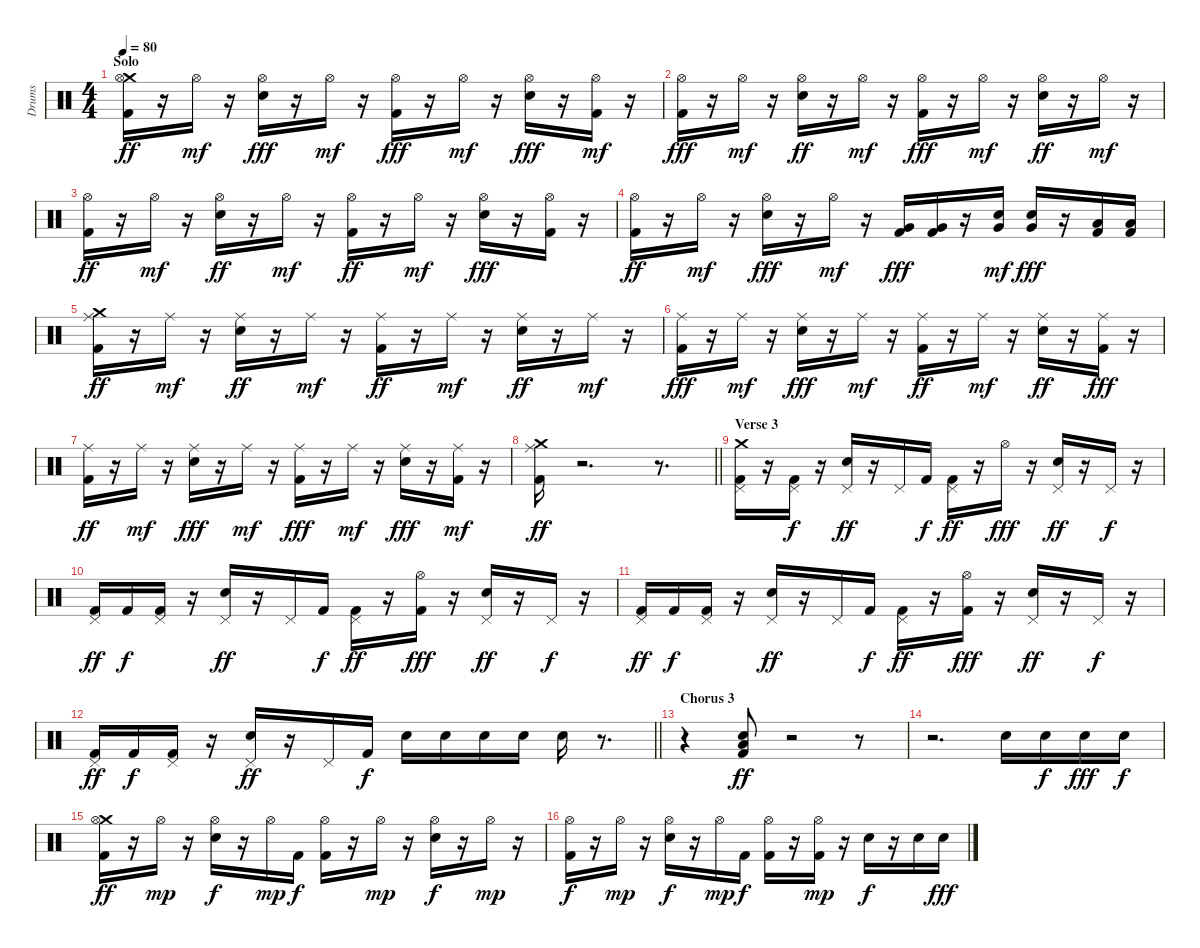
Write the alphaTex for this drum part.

\track ("Drums" "Drums") {instrument percussion}
\staff {score}
\articulation defaults
\ts (4 4)
\section ("" "Solo")
\tempo 80
\clef neutral
\ks c
("Crash medium (hit)" "Kick (hit) 2" "Hi-Hat (open)").16{dy ff} r.16 "Hi-Hat (open)".16{dy mf} r.16 ("Hi-Hat (open)" "Snare (hit) 2").16{dy fff} r.16 "Hi-Hat (open)".16{dy mf} r.16 ("Hi-Hat (open)" "Kick (hit) 2").16{dy fff} r.16 "Hi-Hat (open)".16{dy mf} r.16 ("Hi-Hat (open)" "Snare (hit) 2").16{dy fff} r.16 ("Kick (hit) 2" "Hi-Hat (open)").16{dy mf} r.16 |
("Hi-Hat (open)" "Kick (hit) 2").16{dy fff} r.16 "Hi-Hat (open)".16{dy mf} r.16 ("Snare (hit) 2" "Hi-Hat (open)").16{dy ff} r.16 "Hi-Hat (open)".16{dy mf} r.16 ("Hi-Hat (open)" "Kick (hit) 2").16{dy fff} r.16 "Hi-Hat (open)".16{dy mf} r.16 ("Snare (hit) 2" "Hi-Hat (open)").16{dy ff} r.16 "Hi-Hat (open)".16{dy mf} r.16 |
("Kick (hit) 2" "Hi-Hat (open)").16{dy ff} r.16 "Hi-Hat (open)".16{dy mf} r.16 ("Snare (hit) 2" "Hi-Hat (open)").16{dy ff} r.16 "Hi-Hat (open)".16{dy mf} r.16 ("Kick (hit) 2" "Hi-Hat (open)").16{dy ff} r.16 "Hi-Hat (open)".16{dy mf} r.16 ("Hi-Hat (open)" "Snare (hit) 2").16{dy fff} r.16 ("Hi-Hat (open)" "Kick (hit) 2").16 r.16 |
("Kick (hit) 2" "Hi-Hat (open)").16{dy ff} r.16 "Hi-Hat (open)".16{dy mf} r.16 ("Hi-Hat (open)" "Snare (hit) 2").16{dy fff} r.16 "Hi-Hat (open)".16{dy mf} r.16 ("Very Low Tom (hit)" "Kick (hit) 2").16{dy fff} ("Very Low Tom (hit)" "Kick (hit) 2").16 r.16 ("Snare (hit) 2" "Very Low Tom (hit)").16{dy mf} ("Very Low Tom (hit)" "Snare (hit) 2").16{dy fff} r.16 ("Low Floor Tom (hit)" "Kick (hit) 2").16 ("Low Floor Tom (hit)" "Kick (hit) 2").16 |
("Crash medium (hit)" "Kick (hit) 2" "Ride (middle)").16{dy ff} r.16 "Ride (middle)".16{dy mf} r.16 ("Snare (hit) 2" "Ride (middle)").16{dy ff} r.16 "Ride (middle)".16{dy mf} r.16 ("Kick (hit) 2" "Ride (middle)").16{dy ff} r.16 "Ride (middle)".16{dy mf} r.16 ("Snare (hit) 2" "Ride (middle)").16{dy ff} r.16 "Ride (middle)".16{dy mf} r.16 |
("Ride (middle)" "Kick (hit) 2").16{dy fff} r.16 "Ride (middle)".16{dy mf} r.16 ("Ride (middle)" "Snare (hit) 2").16{dy fff} r.16 "Ride (middle)".16{dy mf} r.16 ("Kick (hit) 2" "Ride (middle)").16{dy ff} r.16 "Ride (middle)".16{dy mf} r.16 ("Snare (hit) 2" "Ride (middle)").16{dy ff} r.16 ("Ride (middle)" "Kick (hit) 2").16{dy fff} r.16 |
("Kick (hit) 2" "Ride (middle)").16{dy ff} r.16 "Ride (middle)".16{dy mf} r.16 ("Ride (middle)" "Snare (hit) 2").16{dy fff} r.16 "Ride (middle)".16{dy mf} r.16 ("Ride (middle)" "Kick (hit) 2").16{dy fff} r.16 "Ride (middle)".16{dy mf} r.16 ("Ride (middle)" "Snare (hit) 2").16{dy fff} r.16 ("Kick (hit) 2" "Ride (middle)").16{dy mf} r.16 |
\barLineRight lightlight
("Ride (middle)" "Kick (hit) 2" "Crash medium (hit)").16{dy ff} r.2{d} r.8{d} |
\section ("" "Verse 3")
("Pedal Hi-Hat (hit)" "Crash medium (hit)" "Kick (hit) 2").16 r.16 ("Kick (hit) 2" "Pedal Hi-Hat (hit)").16{dy f} r.16 ("Snare (hit) 2" "Pedal Hi-Hat (hit)").16{dy ff} r.16 "Pedal Hi-Hat (hit)".16 "Kick (hit) 2".16{dy f} ("Kick (hit) 2" "Pedal Hi-Hat (hit)").16{dy ff} r.16 "Hi-Hat (open)".16{dy fff} r.16 ("Pedal Hi-Hat (hit)" "Snare (hit) 2").16{dy ff} r.16 "Pedal Hi-Hat (hit)".16{dy f} r.16 |
("Pedal Hi-Hat (hit)" "Kick (hit) 2").16{dy ff} "Kick (hit) 2".16{dy f} ("Kick (hit) 2" "Pedal Hi-Hat (hit)").16 r.16 ("Pedal Hi-Hat (hit)" "Snare (hit) 2").16{dy ff} r.16 "Pedal Hi-Hat (hit)".16 "Kick (hit) 2".16{dy f} ("Pedal Hi-Hat (hit)" "Kick (hit) 2").16{dy ff} r.16 ("Hi-Hat (open)" "Kick (hit) 2").16{dy fff} r.16 ("Pedal Hi-Hat (hit)" "Snare (hit) 2").16{dy ff} r.16 "Pedal Hi-Hat (hit)".16{dy f} r.16 |
("Kick (hit) 2" "Pedal Hi-Hat (hit)").16{dy ff} "Kick (hit) 2".16{dy f} ("Kick (hit) 2" "Pedal Hi-Hat (hit)").16 r.16 ("Pedal Hi-Hat (hit)" "Snare (hit) 2").16{dy ff} r.16 "Pedal Hi-Hat (hit)".16 "Kick (hit) 2".16{dy f} ("Kick (hit) 2" "Pedal Hi-Hat (hit)").16{dy ff} r.16 ("Kick (hit) 2" "Hi-Hat (open)").16{dy fff} r.16 ("Snare (hit) 2" "Pedal Hi-Hat (hit)").16{dy ff} r.16 "Pedal Hi-Hat (hit)".16{dy f} r.16 |
\barLineRight lightlight
("Pedal Hi-Hat (hit)" "Kick (hit) 2").16{dy ff} "Kick (hit) 2".16{dy f} ("Pedal Hi-Hat (hit)" "Kick (hit) 2").16 r.16 ("Pedal Hi-Hat (hit)" "Snare (hit) 2").16{dy ff} r.16 "Pedal Hi-Hat (hit)".16 "Kick (hit) 2".16{dy f} "Snare (hit) 2".16 "Snare (hit) 2".16 "Snare (hit) 2".16 "Snare (hit) 2".16 "Snare (hit) 2".16 r.8{d} |
\section ("" "Chorus 3")
r.4 ("Kick (hit) 2" "Snare (hit) 2" "Low Floor Tom (hit)").8{dy ff} r.2 r.8 |
r.2{d} "Snare (hit) 2".16 "Snare (hit) 2".16{dy f} "Snare (hit) 2".16{dy fff} "Snare (hit) 2".16{dy f} |
("Kick (hit) 2" "Crash medium (hit)" "Hi-Hat (open)").16{dy ff} r.16 "Hi-Hat (open)".16{dy mp} r.16 ("Hi-Hat (open)" "Snare (hit) 2").16{dy f} r.16 "Hi-Hat (open)".16{dy mp} "Kick (hit) 2".16{dy f} ("Kick (hit) 2" "Hi-Hat (open)").16 r.16 "Hi-Hat (open)".16{dy mp} r.16 ("Snare (hit) 2" "Hi-Hat (open)").16{dy f} r.16 "Hi-Hat (open)".16{dy mp} r.16 |
("Hi-Hat (open)" "Kick (hit) 2").16{dy f} r.16 "Hi-Hat (open)".16{dy mp} r.16 ("Snare (hit) 2" "Hi-Hat (open)").16{dy f} r.16 "Hi-Hat (open)".16{dy mp} "Kick (hit) 2".16{dy f} ("Hi-Hat (open)" "Kick (hit) 2").16 r.16 ("Kick (hit) 2" "Hi-Hat (open)").16{dy mp} r.16 "Snare (hit) 2".16{dy f} r.16 "Snare (hit) 2".16 "Snare (hit) 2".16{dy fff}
